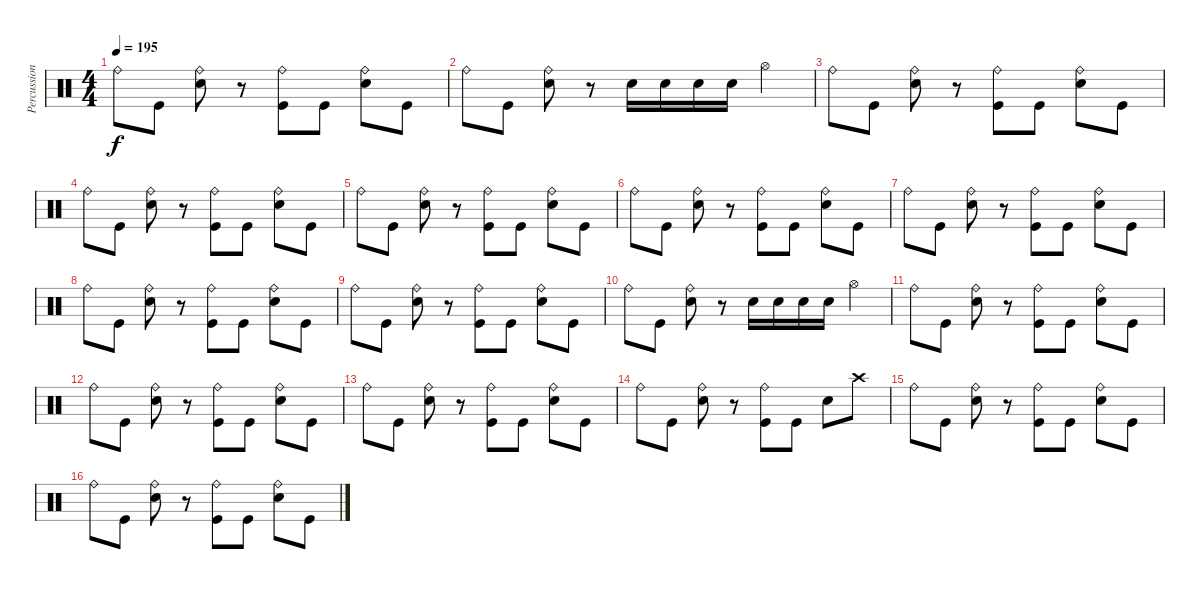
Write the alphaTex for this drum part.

\track ("Percussion" "Percussion") {instrument percussion}
\staff {score}
\articulation defaults
\ts (4 4)
\tempo 195
\clef neutral
\ks c "Ride (bell)".8{dy f} "Kick (hit)".8
("Ride (bell)" "Electric Snare (hit)").8 r.8 ("Ride (bell)" "Kick (hit)").8 "Kick (hit)".8 ("Ride (bell)" "Electric Snare (hit)").8 "Kick (hit)".8 |
"Ride (bell)".8 "Kick (hit)".8 ("Ride (bell)" "Electric Snare (hit)").8 r.8 "Electric Snare (hit)".16 "Electric Snare (hit)".16 "Electric Snare (hit)".16 "Electric Snare (hit)".16 "Hi-Hat (open)".4 |
"Ride (bell)".8 "Kick (hit)".8 ("Ride (bell)" "Electric Snare (hit)").8 r.8 ("Ride (bell)" "Kick (hit)").8 "Kick (hit)".8 ("Ride (bell)" "Electric Snare (hit)").8 "Kick (hit)".8 |
"Ride (bell)".8 "Kick (hit)".8 ("Ride (bell)" "Electric Snare (hit)").8 r.8 ("Ride (bell)" "Kick (hit)").8 "Kick (hit)".8 ("Ride (bell)" "Electric Snare (hit)").8 "Kick (hit)".8 |
"Ride (bell)".8 "Kick (hit)".8 ("Ride (bell)" "Electric Snare (hit)").8 r.8 ("Ride (bell)" "Kick (hit)").8 "Kick (hit)".8 ("Ride (bell)" "Electric Snare (hit)").8 "Kick (hit)".8 |
"Ride (bell)".8 "Kick (hit)".8 ("Ride (bell)" "Electric Snare (hit)").8 r.8 ("Ride (bell)" "Kick (hit)").8 "Kick (hit)".8 ("Ride (bell)" "Electric Snare (hit)").8 "Kick (hit)".8 |
"Ride (bell)".8 "Kick (hit)".8 ("Ride (bell)" "Electric Snare (hit)").8 r.8 ("Ride (bell)" "Kick (hit)").8 "Kick (hit)".8 ("Ride (bell)" "Electric Snare (hit)").8 "Kick (hit)".8 |
"Ride (bell)".8 "Kick (hit)".8 ("Ride (bell)" "Electric Snare (hit)").8 r.8 ("Ride (bell)" "Kick (hit)").8 "Kick (hit)".8 ("Ride (bell)" "Electric Snare (hit)").8 "Kick (hit)".8 |
"Ride (bell)".8 "Kick (hit)".8 ("Ride (bell)" "Electric Snare (hit)").8 r.8 ("Ride (bell)" "Kick (hit)").8 "Kick (hit)".8 ("Ride (bell)" "Electric Snare (hit)").8 "Kick (hit)".8 |
"Ride (bell)".8 "Kick (hit)".8 ("Ride (bell)" "Electric Snare (hit)").8 r.8 "Electric Snare (hit)".16 "Electric Snare (hit)".16 "Electric Snare (hit)".16 "Electric Snare (hit)".16 "Hi-Hat (open)".4 |
"Ride (bell)".8 "Kick (hit)".8 ("Ride (bell)" "Electric Snare (hit)").8 r.8 ("Ride (bell)" "Kick (hit)").8 "Kick (hit)".8 ("Ride (bell)" "Electric Snare (hit)").8 "Kick (hit)".8 |
"Ride (bell)".8 "Kick (hit)".8 ("Ride (bell)" "Electric Snare (hit)").8 r.8 ("Ride (bell)" "Kick (hit)").8 "Kick (hit)".8 ("Ride (bell)" "Electric Snare (hit)").8 "Kick (hit)".8 |
"Ride (bell)".8 "Kick (hit)".8 ("Ride (bell)" "Electric Snare (hit)").8 r.8 ("Ride (bell)" "Kick (hit)").8 "Kick (hit)".8 ("Ride (bell)" "Electric Snare (hit)").8 "Kick (hit)".8 |
"Ride (bell)".8 "Kick (hit)".8 ("Ride (bell)" "Electric Snare (hit)").8 r.8 ("Ride (bell)" "Kick (hit)").8 "Kick (hit)".8 "Electric Snare (hit)".8 "Crash high (hit)".8 |
"Ride (bell)".8 "Kick (hit)".8 ("Ride (bell)" "Electric Snare (hit)").8 r.8 ("Ride (bell)" "Kick (hit)").8 "Kick (hit)".8 ("Ride (bell)" "Electric Snare (hit)").8 "Kick (hit)".8 |
"Ride (bell)".8 "Kick (hit)".8 ("Ride (bell)" "Electric Snare (hit)").8 r.8 ("Ride (bell)" "Kick (hit)").8 "Kick (hit)".8 ("Ride (bell)" "Electric Snare (hit)").8 "Kick (hit)".8
